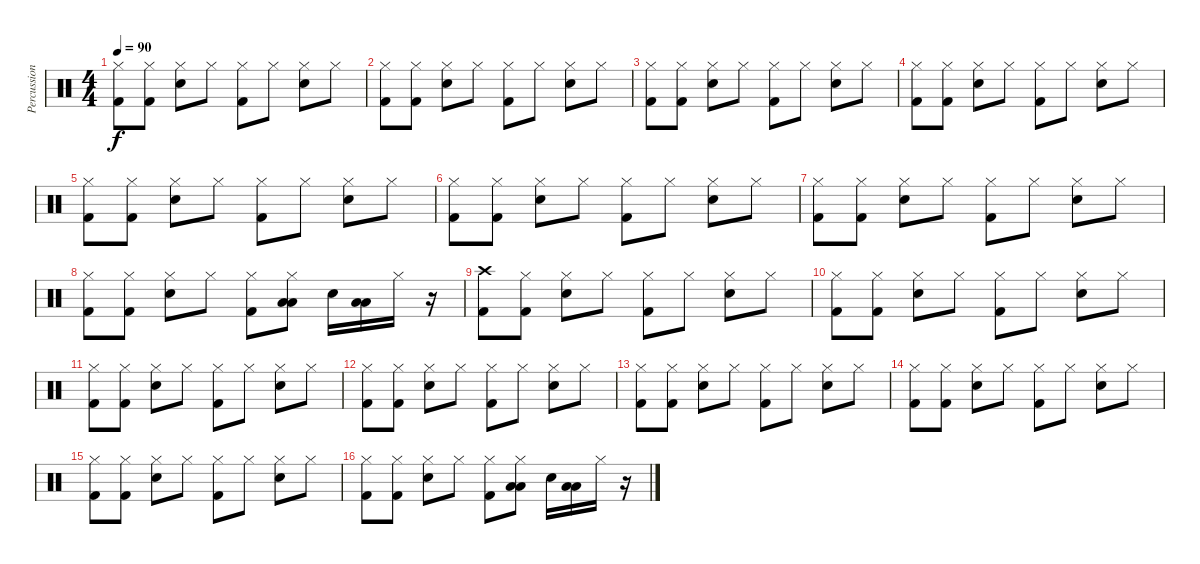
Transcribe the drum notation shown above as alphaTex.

\track ("Percussion" "Percussion") {instrument percussion}
\staff {score}
\articulation defaults
\ts (4 4)
\tempo 90
\clef neutral
\ks c
("Hi-Hat (closed)" "Kick (hit) 2").8{dy f} ("Hi-Hat (closed)" "Kick (hit) 2").8 ("Hi-Hat (closed)" "Snare (hit) 2").8 "Hi-Hat (closed)".8 ("Hi-Hat (closed)" "Kick (hit) 2").8 "Hi-Hat (closed)".8 ("Hi-Hat (closed)" "Snare (hit) 2").8 "Hi-Hat (closed)".8 |
("Hi-Hat (closed)" "Kick (hit) 2").8 ("Hi-Hat (closed)" "Kick (hit) 2").8 ("Hi-Hat (closed)" "Snare (hit) 2").8 "Hi-Hat (closed)".8 ("Hi-Hat (closed)" "Kick (hit) 2").8 "Hi-Hat (closed)".8 ("Hi-Hat (closed)" "Snare (hit) 2").8 "Hi-Hat (closed)".8 |
("Hi-Hat (closed)" "Kick (hit) 2").8 ("Hi-Hat (closed)" "Kick (hit) 2").8 ("Hi-Hat (closed)" "Snare (hit) 2").8 "Hi-Hat (closed)".8 ("Hi-Hat (closed)" "Kick (hit) 2").8 "Hi-Hat (closed)".8 ("Hi-Hat (closed)" "Snare (hit) 2").8 "Hi-Hat (closed)".8 |
("Hi-Hat (closed)" "Kick (hit) 2").8 ("Hi-Hat (closed)" "Kick (hit) 2").8 ("Hi-Hat (closed)" "Snare (hit) 2").8 "Hi-Hat (closed)".8 ("Hi-Hat (closed)" "Kick (hit) 2").8 "Hi-Hat (closed)".8 ("Hi-Hat (closed)" "Snare (hit) 2").8 "Hi-Hat (closed)".8 |
("Hi-Hat (closed)" "Kick (hit) 2").8 ("Hi-Hat (closed)" "Kick (hit) 2").8 ("Hi-Hat (closed)" "Snare (hit) 2").8 "Hi-Hat (closed)".8 ("Hi-Hat (closed)" "Kick (hit) 2").8 "Hi-Hat (closed)".8 ("Hi-Hat (closed)" "Snare (hit) 2").8 "Hi-Hat (closed)".8 |
("Hi-Hat (closed)" "Kick (hit) 2").8 ("Hi-Hat (closed)" "Kick (hit) 2").8 ("Hi-Hat (closed)" "Snare (hit) 2").8 "Hi-Hat (closed)".8 ("Hi-Hat (closed)" "Kick (hit) 2").8 "Hi-Hat (closed)".8 ("Hi-Hat (closed)" "Snare (hit) 2").8 "Hi-Hat (closed)".8 |
("Hi-Hat (closed)" "Kick (hit) 2").8 ("Hi-Hat (closed)" "Kick (hit) 2").8 ("Hi-Hat (closed)" "Snare (hit) 2").8 "Hi-Hat (closed)".8 ("Hi-Hat (closed)" "Kick (hit) 2").8 "Hi-Hat (closed)".8 ("Hi-Hat (closed)" "Snare (hit) 2").8 "Hi-Hat (closed)".8 |
("Hi-Hat (closed)" "Kick (hit) 2").8 ("Hi-Hat (closed)" "Kick (hit) 2").8 ("Hi-Hat (closed)" "Snare (hit) 2").8 "Hi-Hat (closed)".8 ("Hi-Hat (closed)" "Kick (hit) 2").8 ("Hi-Hat (closed)" "Low Tom (hit)" "Low Tom (hit)").8 "Snare (hit) 2".16 ("Low Floor Tom (hit)" "Low Floor Tom (hit)").16 "Hi-Hat (closed)".16 r.16 |
("Crash high (hit)" "Kick (hit) 2").8 ("Hi-Hat (closed)" "Kick (hit) 2").8 ("Hi-Hat (closed)" "Snare (hit) 2").8 "Hi-Hat (closed)".8 ("Hi-Hat (closed)" "Kick (hit) 2").8 "Hi-Hat (closed)".8 ("Hi-Hat (closed)" "Snare (hit) 2").8 "Hi-Hat (closed)".8 |
("Hi-Hat (closed)" "Kick (hit) 2").8 ("Hi-Hat (closed)" "Kick (hit) 2").8 ("Hi-Hat (closed)" "Snare (hit) 2").8 "Hi-Hat (closed)".8 ("Hi-Hat (closed)" "Kick (hit) 2").8 "Hi-Hat (closed)".8 ("Hi-Hat (closed)" "Snare (hit) 2").8 "Hi-Hat (closed)".8 |
("Hi-Hat (closed)" "Kick (hit) 2").8 ("Hi-Hat (closed)" "Kick (hit) 2").8 ("Hi-Hat (closed)" "Snare (hit) 2").8 "Hi-Hat (closed)".8 ("Hi-Hat (closed)" "Kick (hit) 2").8 "Hi-Hat (closed)".8 ("Hi-Hat (closed)" "Snare (hit) 2").8 "Hi-Hat (closed)".8 |
("Hi-Hat (closed)" "Kick (hit) 2").8 ("Hi-Hat (closed)" "Kick (hit) 2").8 ("Hi-Hat (closed)" "Snare (hit) 2").8 "Hi-Hat (closed)".8 ("Hi-Hat (closed)" "Kick (hit) 2").8 "Hi-Hat (closed)".8 ("Hi-Hat (closed)" "Snare (hit) 2").8 "Hi-Hat (closed)".8 |
("Hi-Hat (closed)" "Kick (hit) 2").8 ("Hi-Hat (closed)" "Kick (hit) 2").8 ("Hi-Hat (closed)" "Snare (hit) 2").8 "Hi-Hat (closed)".8 ("Hi-Hat (closed)" "Kick (hit) 2").8 "Hi-Hat (closed)".8 ("Hi-Hat (closed)" "Snare (hit) 2").8 "Hi-Hat (closed)".8 |
("Hi-Hat (closed)" "Kick (hit) 2").8 ("Hi-Hat (closed)" "Kick (hit) 2").8 ("Hi-Hat (closed)" "Snare (hit) 2").8 "Hi-Hat (closed)".8 ("Hi-Hat (closed)" "Kick (hit) 2").8 "Hi-Hat (closed)".8 ("Hi-Hat (closed)" "Snare (hit) 2").8 "Hi-Hat (closed)".8 |
("Hi-Hat (closed)" "Kick (hit) 2").8 ("Hi-Hat (closed)" "Kick (hit) 2").8 ("Hi-Hat (closed)" "Snare (hit) 2").8 "Hi-Hat (closed)".8 ("Hi-Hat (closed)" "Kick (hit) 2").8 "Hi-Hat (closed)".8 ("Hi-Hat (closed)" "Snare (hit) 2").8 "Hi-Hat (closed)".8 |
("Hi-Hat (closed)" "Kick (hit) 2").8 ("Hi-Hat (closed)" "Kick (hit) 2").8 ("Hi-Hat (closed)" "Snare (hit) 2").8 "Hi-Hat (closed)".8 ("Hi-Hat (closed)" "Kick (hit) 2").8 ("Hi-Hat (closed)" "Low Tom (hit)" "Low Tom (hit)").8 "Snare (hit) 2".16 ("Low Floor Tom (hit)" "Low Floor Tom (hit)").16 "Hi-Hat (closed)".16 r.16
